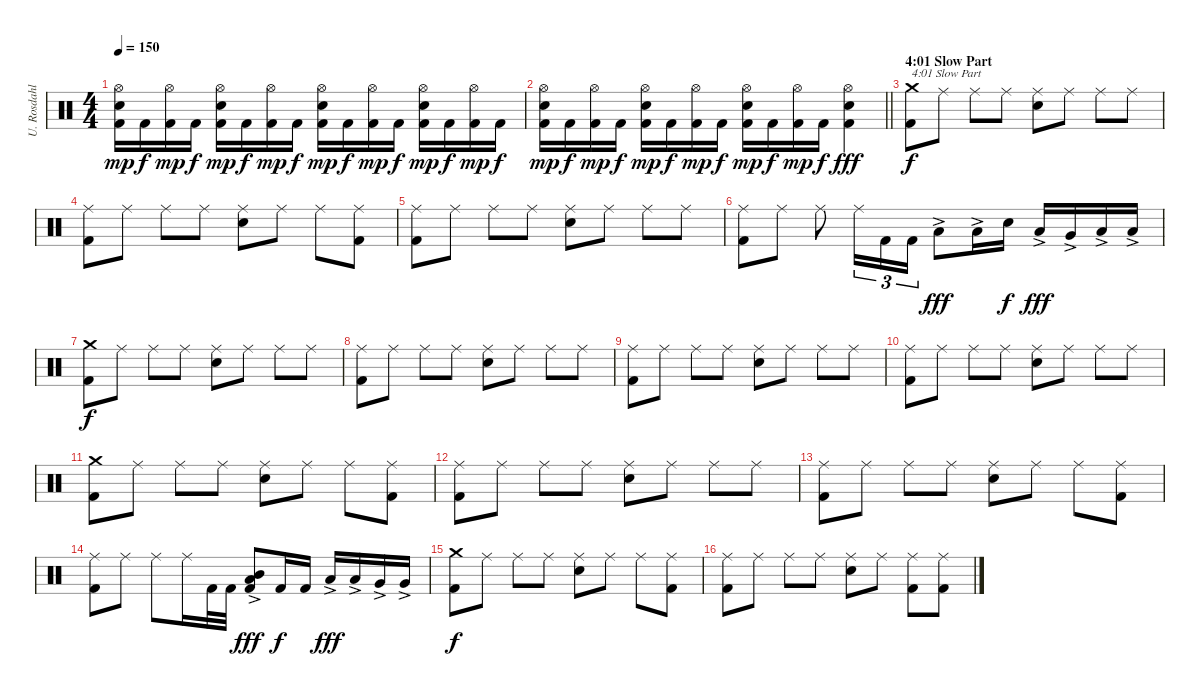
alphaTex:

\track ("U. Rosdahl" "U. Rosdahl") {instrument percussion}
\staff {score}
\articulation defaults
\ts (4 4)
\tempo 150
\clef neutral
\ks c
("Kick (hit) 2" "Electric Snare (hit)" "Hi-Hat (open)").16{dy mp} "Kick (hit) 2".16{dy f} ("Kick (hit) 2" "Hi-Hat (open)").16{dy mp} "Kick (hit) 2".16{dy f} ("Kick (hit) 2" "Electric Snare (hit)" "Hi-Hat (open)").16{dy mp} "Kick (hit) 2".16{dy f} ("Kick (hit) 2" "Hi-Hat (open)").16{dy mp} "Kick (hit) 2".16{dy f} ("Kick (hit) 2" "Electric Snare (hit)" "Hi-Hat (open)").16{dy mp} "Kick (hit) 2".16{dy f} ("Kick (hit) 2" "Hi-Hat (open)").16{dy mp} "Kick (hit) 2".16{dy f} ("Kick (hit) 2" "Electric Snare (hit)" "Hi-Hat (open)").16{dy mp} "Kick (hit) 2".16{dy f} ("Kick (hit) 2" "Hi-Hat (open)").16{dy mp} "Kick (hit) 2".16{dy f} |
\barLineRight lightlight
("Kick (hit) 2" "Electric Snare (hit)" "Hi-Hat (open)").16{dy mp} "Kick (hit) 2".16{dy f} ("Kick (hit) 2" "Hi-Hat (open)").16{dy mp} "Kick (hit) 2".16{dy f} ("Kick (hit) 2" "Electric Snare (hit)" "Hi-Hat (open)").16{dy mp} "Kick (hit) 2".16{dy f} ("Kick (hit) 2" "Hi-Hat (open)").16{dy mp} "Kick (hit) 2".16{dy f} ("Kick (hit) 2" "Electric Snare (hit)" "Hi-Hat (open)").16{dy mp} "Kick (hit) 2".16{dy f} ("Kick (hit) 2" "Hi-Hat (open)").16{dy mp} "Kick (hit) 2".16{dy f} ("Kick (hit) 2" "Electric Snare (hit)" "Hi-Hat (open)").4{dy fff} |
\section ("" "4:01 Slow Part")
("Kick (hit) 2" "Crash medium (hit)").8{txt "4:01 Slow Part" dy f} "Ride (middle)".8 "Ride (middle)".8 "Ride (middle)".8 ("Electric Snare (hit)" "Ride (middle)").8 "Ride (middle)".8 "Ride (middle)".8 "Ride (middle)".8 |
("Kick (hit) 2" "Ride (middle)").8 "Ride (middle)".8 "Ride (middle)".8 "Ride (middle)".8 ("Electric Snare (hit)" "Ride (middle)").8 "Ride (middle)".8 "Ride (middle)".8 ("Kick (hit) 2" "Ride (middle)").8 |
("Kick (hit) 2" "Ride (middle)").8 "Ride (middle)".8 "Ride (middle)".8 "Ride (middle)".8 ("Electric Snare (hit)" "Ride (middle)").8 "Ride (middle)".8 "Ride (middle)".8 "Ride (middle)".8 |
("Kick (hit) 2" "Ride (middle)").8 "Ride (middle)".8 "Ride (middle)".8 "Ride (middle)".16{tu (3 2)} "Kick (hit) 2".16{tu (3 2)} "Kick (hit) 2".16{tu (3 2)} "Low Tom (hit)"{ac}.8{dy fff} "Low Tom (hit)"{ac}.16 "Electric Snare (hit)".16{dy f} "Low Tom (hit)"{ac}.16{dy fff} "Very Low Tom (hit)"{ac}.16 "Low Floor Tom (hit)"{ac}.16 "Low Floor Tom (hit)"{ac}.16 |
("Kick (hit) 2" "Crash medium (hit)").8{dy f} "Ride (middle)".8 "Ride (middle)".8 "Ride (middle)".8 ("Electric Snare (hit)" "Ride (middle)").8 "Ride (middle)".8 "Ride (middle)".8 "Ride (middle)".8 |
("Kick (hit) 2" "Ride (middle)").8 "Ride (middle)".8 "Ride (middle)".8 "Ride (middle)".8 ("Electric Snare (hit)" "Ride (middle)").8 "Ride (middle)".8 "Ride (middle)".8 "Ride (middle)".8 |
("Kick (hit) 2" "Ride (middle)").8 "Ride (middle)".8 "Ride (middle)".8 "Ride (middle)".8 ("Electric Snare (hit)" "Ride (middle)").8 "Ride (middle)".8 "Ride (middle)".8 "Ride (middle)".8 |
("Kick (hit) 2" "Ride (middle)").8 "Ride (middle)".8 "Ride (middle)".8 "Ride (middle)".8 ("Electric Snare (hit)" "Ride (middle)").8 "Ride (middle)".8 "Ride (middle)".8 "Ride (middle)".8 |
("Kick (hit) 2" "Crash medium (hit)").8 "Ride (middle)".8 "Ride (middle)".8 "Ride (middle)".8 ("Electric Snare (hit)" "Ride (middle)").8 "Ride (middle)".8 "Ride (middle)".8 ("Kick (hit) 2" "Ride (middle)").8 |
("Kick (hit) 2" "Ride (middle)").8 "Ride (middle)".8 "Ride (middle)".8 "Ride (middle)".8 ("Electric Snare (hit)" "Ride (middle)").8 "Ride (middle)".8 "Ride (middle)".8 "Ride (middle)".8 |
("Kick (hit) 2" "Ride (middle)").8 "Ride (middle)".8 "Ride (middle)".8 "Ride (middle)".8 ("Electric Snare (hit)" "Ride (middle)").8 "Ride (middle)".8 "Ride (middle)".8 ("Kick (hit) 2" "Ride (middle)").8 |
("Kick (hit) 2" "Ride (middle)").8 "Ride (middle)".8 "Ride (middle)".8 "Ride (middle)".16 "Kick (hit) 2".32 "Kick (hit) 2".32 ("Kick (hit) 2" "Low Tom (hit)"{ac} "Mid Tom (hit)"{ac}).8{dy fff} "Kick (hit) 2".16{dy f} "Kick (hit) 2".16 "Low Tom (hit)"{ac}.16{dy fff} "Low Tom (hit)"{ac}.16 "Very Low Tom (hit)"{ac}.16 "Very Low Tom (hit)"{ac}.16 |
("Kick (hit) 2" "Crash medium (hit)").8{dy f} "Ride (middle)".8 "Ride (middle)".8 "Ride (middle)".8 ("Electric Snare (hit)" "Ride (middle)").8 "Ride (middle)".8 "Ride (middle)".8 ("Kick (hit) 2" "Ride (middle)").8 |
("Kick (hit) 2" "Ride (middle)").8 "Ride (middle)".8 "Ride (middle)".8 "Ride (middle)".8 ("Electric Snare (hit)" "Ride (middle)").8 "Ride (middle)".8 ("Kick (hit) 2" "Ride (middle)").8 ("Kick (hit) 2" "Ride (middle)").8
